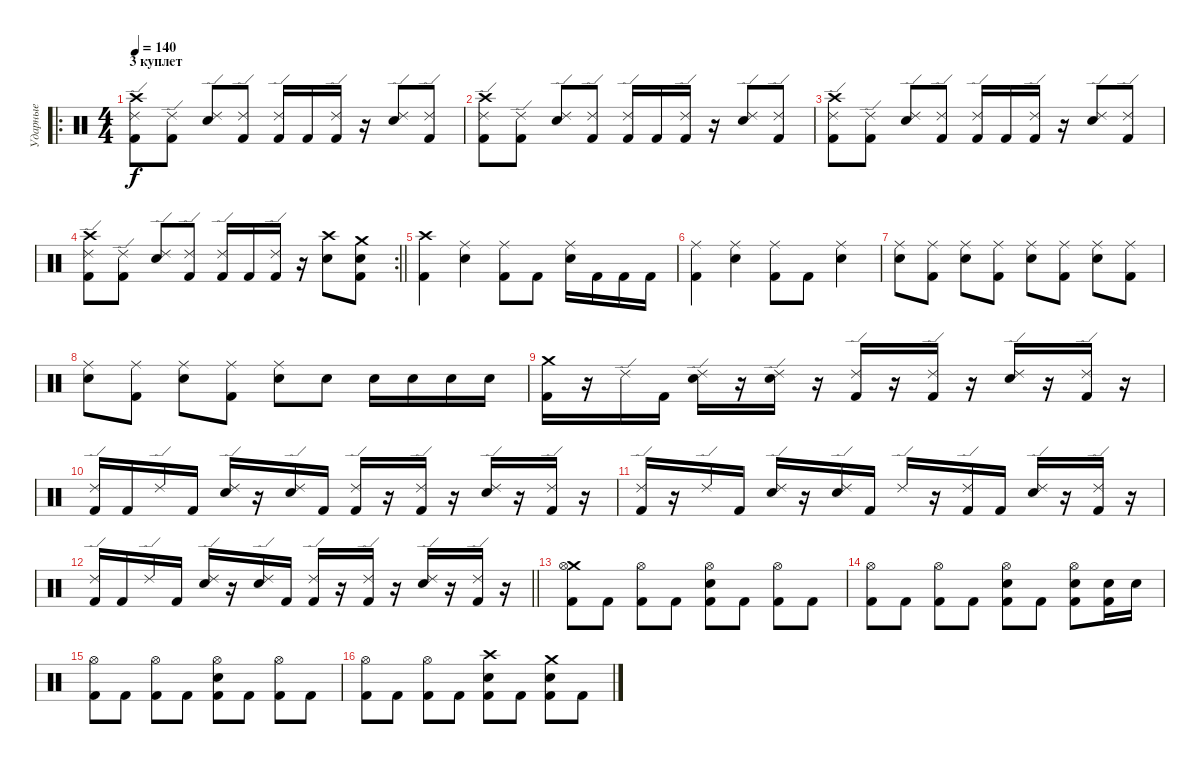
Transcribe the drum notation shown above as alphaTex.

\track ("Ударные" "Ударные") {instrument percussion}
\staff {score}
\articulation defaults
\ro
\ts (4 4)
\section ("" "3 куплет")
\tempo 140
\clef neutral
\ks c
("Crash high (hit)" "Ride (edge) 2" "Kick (hit) 2").8{dy f} ("Ride (edge) 2" "Kick (hit) 2").8 ("Snare (hit) 2" "Ride (edge) 2").8 ("Ride (edge) 2" "Kick (hit) 2").8 ("Ride (edge) 2" "Kick (hit) 2").16 "Kick (hit) 2".16 ("Ride (edge) 2" "Kick (hit) 2").16 r.16 ("Snare (hit) 2" "Ride (edge) 2").8 ("Ride (edge) 2" "Kick (hit) 2").8 |
("Crash high (hit)" "Ride (edge) 2" "Kick (hit) 2").8 ("Ride (edge) 2" "Kick (hit) 2").8 ("Snare (hit) 2" "Ride (edge) 2").8 ("Ride (edge) 2" "Kick (hit) 2").8 ("Ride (edge) 2" "Kick (hit) 2").16 "Kick (hit) 2".16 ("Ride (edge) 2" "Kick (hit) 2").16 r.16 ("Snare (hit) 2" "Ride (edge) 2").8 ("Ride (edge) 2" "Kick (hit) 2").8 |
("Crash high (hit)" "Ride (edge) 2" "Kick (hit) 2").8 ("Ride (edge) 2" "Kick (hit) 2").8 ("Snare (hit) 2" "Ride (edge) 2").8 ("Ride (edge) 2" "Kick (hit) 2").8 ("Ride (edge) 2" "Kick (hit) 2").16 "Kick (hit) 2".16 ("Ride (edge) 2" "Kick (hit) 2").16 r.16 ("Snare (hit) 2" "Ride (edge) 2").8 ("Ride (edge) 2" "Kick (hit) 2").8 |
\rc 2
\barLineRight lightlight
("Crash high (hit)" "Ride (edge) 2" "Kick (hit) 2").8 ("Ride (edge) 2" "Kick (hit) 2").8 ("Snare (hit) 2" "Ride (edge) 2").8 ("Ride (edge) 2" "Kick (hit) 2").8 ("Ride (edge) 2" "Kick (hit) 2").16 "Kick (hit) 2".16 ("Ride (edge) 2" "Kick (hit) 2").16 r.16 ("Snare (hit) 2" "Crash high (hit)").8 ("Snare (hit) 2" "Crash medium (hit)" "Kick (hit) 2").8 |
("Crash high (hit)" "Kick (hit) 2").4 ("Ride (middle)" "Snare (hit) 2").4 ("Ride (middle)" "Kick (hit) 2").8 "Kick (hit) 2".8 ("Ride (middle)" "Snare (hit) 2").16 "Kick (hit) 2".16 "Kick (hit) 2".16 "Kick (hit) 2".16 |
("Ride (middle)" "Kick (hit) 2").4 ("Ride (middle)" "Snare (hit) 2").4 ("Ride (middle)" "Kick (hit) 2").8 "Kick (hit) 2".8 ("Ride (middle)" "Snare (hit) 2").4 |
("Ride (middle)" "Snare (hit) 2").8 ("Ride (middle)" "Kick (hit) 2").8 ("Ride (middle)" "Snare (hit) 2").8 ("Ride (middle)" "Kick (hit) 2").8 ("Ride (middle)" "Snare (hit) 2").8 ("Ride (middle)" "Kick (hit) 2").8 ("Ride (middle)" "Snare (hit) 2").8 ("Ride (middle)" "Kick (hit) 2").8 |
("Ride (middle)" "Snare (hit) 2").8 ("Ride (middle)" "Kick (hit) 2").8 ("Ride (middle)" "Snare (hit) 2").8 ("Ride (middle)" "Kick (hit) 2").8 ("Ride (middle)" "Snare (hit) 2").8 "Snare (hit) 2".8 "Snare (hit) 2".16 "Snare (hit) 2".16 "Snare (hit) 2".16 "Snare (hit) 2".16 |
("Crash medium (hit)" "Kick (hit) 2").16 r.16 "Ride (edge) 2".16 "Kick (hit) 2".16 ("Ride (edge) 2" "Snare (hit) 2").16 r.16 ("Ride (edge) 2" "Snare (hit) 2").16 r.16 ("Ride (edge) 2" "Kick (hit) 2").16 r.16 ("Ride (edge) 2" "Kick (hit) 2").16 r.16 ("Ride (edge) 2" "Snare (hit) 2").16 r.16 ("Ride (edge) 2" "Kick (hit) 2").16 r.16 |
("Ride (edge) 2" "Kick (hit) 2").16 "Kick (hit) 2".16 "Ride (edge) 2".16 "Kick (hit) 2".16 ("Ride (edge) 2" "Snare (hit) 2").16 r.16 ("Ride (edge) 2" "Snare (hit) 2").16 "Kick (hit) 2".16 ("Ride (edge) 2" "Kick (hit) 2").16 r.16 ("Ride (edge) 2" "Kick (hit) 2").16 r.16 ("Ride (edge) 2" "Snare (hit) 2").16 r.16 ("Ride (edge) 2" "Kick (hit) 2").16 r.16 |
("Ride (edge) 2" "Kick (hit) 2").16 r.16 "Ride (edge) 2".16 "Kick (hit) 2".16 ("Ride (edge) 2" "Snare (hit) 2").16 r.16 ("Ride (edge) 2" "Snare (hit) 2").16 "Kick (hit) 2".16 "Ride (edge) 2".16 r.16 ("Ride (edge) 2" "Kick (hit) 2").16 "Kick (hit) 2".16 ("Ride (edge) 2" "Snare (hit) 2").16 r.16 ("Ride (edge) 2" "Kick (hit) 2").16 r.16 |
\barLineRight lightlight
("Ride (edge) 2" "Kick (hit) 2").16 "Kick (hit) 2".16 "Ride (edge) 2".16 "Kick (hit) 2".16 ("Ride (edge) 2" "Snare (hit) 2").16 r.16 ("Ride (edge) 2" "Snare (hit) 2").16 "Kick (hit) 2".16 ("Ride (edge) 2" "Kick (hit) 2").16 r.16 ("Ride (edge) 2" "Kick (hit) 2").16 r.16 ("Ride (edge) 2" "Snare (hit) 2").16 r.16 ("Ride (edge) 2" "Kick (hit) 2").16 r.16 |
("Crash medium (hit)" "Hi-Hat (open)" "Kick (hit) 2").8 "Kick (hit) 2".8 ("Hi-Hat (open)" "Kick (hit) 2").8 "Kick (hit) 2".8 ("Snare (hit) 2" "Hi-Hat (open)" "Kick (hit) 2").8 "Kick (hit) 2".8 ("Hi-Hat (open)" "Kick (hit) 2").8 "Kick (hit) 2".8 |
("Hi-Hat (open)" "Kick (hit) 2").8 "Kick (hit) 2".8 ("Hi-Hat (open)" "Kick (hit) 2").8 "Kick (hit) 2".8 ("Snare (hit) 2" "Hi-Hat (open)" "Kick (hit) 2").8 "Kick (hit) 2".8 ("Snare (hit) 2" "Hi-Hat (open)" "Kick (hit) 2").8 ("Snare (hit) 2" "Kick (hit) 2").16 "Snare (hit) 2".16 |
("Hi-Hat (open)" "Kick (hit) 2").8 "Kick (hit) 2".8 ("Hi-Hat (open)" "Kick (hit) 2").8 "Kick (hit) 2".8 ("Snare (hit) 2" "Hi-Hat (open)" "Kick (hit) 2").8 "Kick (hit) 2".8 ("Hi-Hat (open)" "Kick (hit) 2").8 "Kick (hit) 2".8 |
("Hi-Hat (open)" "Kick (hit) 2").8 "Kick (hit) 2".8 ("Hi-Hat (open)" "Kick (hit) 2").8 "Kick (hit) 2".8 ("Snare (hit) 2" "Crash high (hit)" "Kick (hit) 2").8 "Kick (hit) 2".8 ("Snare (hit) 2" "Crash medium (hit)" "Kick (hit) 2").8 "Kick (hit) 2".8
